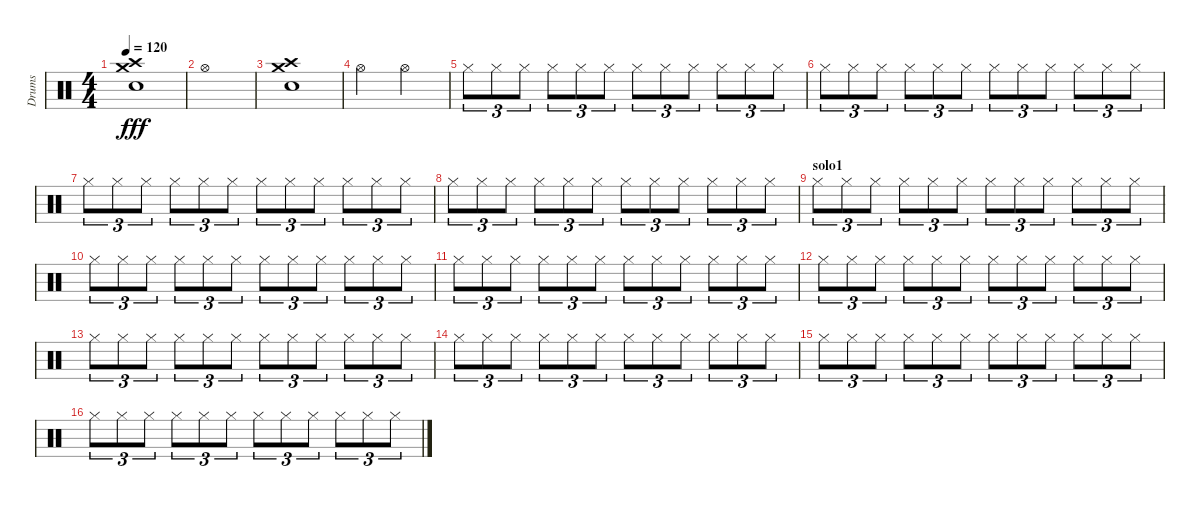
\track ("Drums" "Drums") {instrument percussion}
\staff {score}
\articulation defaults
\ts (4 4)
\tempo 120
\clef neutral
\ks c
("Crash high (hit)" "Crash medium (hit)" "Electric Snare (hit)").1{dy fff} |
"Hi-Hat (open)".1 |
("Crash high (hit)" "Crash medium (hit)" "Electric Snare (hit)").1 |
"Hi-Hat (open)".2 "Hi-Hat (open)".2 |
"Hi-Hat (closed)".8{tu (3 2)} "Hi-Hat (closed)".8{tu (3 2)} "Hi-Hat (closed)".8{tu (3 2)} "Hi-Hat (closed)".8{tu (3 2)} "Hi-Hat (closed)".8{tu (3 2)} "Hi-Hat (closed)".8{tu (3 2)} "Hi-Hat (closed)".8{tu (3 2)} "Hi-Hat (closed)".8{tu (3 2)} "Hi-Hat (closed)".8{tu (3 2)} "Hi-Hat (closed)".8{tu (3 2)} "Hi-Hat (closed)".8{tu (3 2)} "Hi-Hat (closed)".8{tu (3 2)} |
"Hi-Hat (closed)".8{tu (3 2)} "Hi-Hat (closed)".8{tu (3 2)} "Hi-Hat (closed)".8{tu (3 2)} "Hi-Hat (closed)".8{tu (3 2)} "Hi-Hat (closed)".8{tu (3 2)} "Hi-Hat (closed)".8{tu (3 2)} "Hi-Hat (closed)".8{tu (3 2)} "Hi-Hat (closed)".8{tu (3 2)} "Hi-Hat (closed)".8{tu (3 2)} "Hi-Hat (closed)".8{tu (3 2)} "Hi-Hat (closed)".8{tu (3 2)} "Hi-Hat (closed)".8{tu (3 2)} |
"Hi-Hat (closed)".8{tu (3 2)} "Hi-Hat (closed)".8{tu (3 2)} "Hi-Hat (closed)".8{tu (3 2)} "Hi-Hat (closed)".8{tu (3 2)} "Hi-Hat (closed)".8{tu (3 2)} "Hi-Hat (closed)".8{tu (3 2)} "Hi-Hat (closed)".8{tu (3 2)} "Hi-Hat (closed)".8{tu (3 2)} "Hi-Hat (closed)".8{tu (3 2)} "Hi-Hat (closed)".8{tu (3 2)} "Hi-Hat (closed)".8{tu (3 2)} "Hi-Hat (closed)".8{tu (3 2)} |
"Hi-Hat (closed)".8{tu (3 2)} "Hi-Hat (closed)".8{tu (3 2)} "Hi-Hat (closed)".8{tu (3 2)} "Hi-Hat (closed)".8{tu (3 2)} "Hi-Hat (closed)".8{tu (3 2)} "Hi-Hat (closed)".8{tu (3 2)} "Hi-Hat (closed)".8{tu (3 2)} "Hi-Hat (closed)".8{tu (3 2)} "Hi-Hat (closed)".8{tu (3 2)} "Hi-Hat (closed)".8{tu (3 2)} "Hi-Hat (closed)".8{tu (3 2)} "Hi-Hat (closed)".8{tu (3 2)} |
\section ("" "solo1")
"Hi-Hat (closed)".8{tu (3 2)} "Hi-Hat (closed)".8{tu (3 2)} "Hi-Hat (closed)".8{tu (3 2)} "Hi-Hat (closed)".8{tu (3 2)} "Hi-Hat (closed)".8{tu (3 2)} "Hi-Hat (closed)".8{tu (3 2)} "Hi-Hat (closed)".8{tu (3 2)} "Hi-Hat (closed)".8{tu (3 2)} "Hi-Hat (closed)".8{tu (3 2)} "Hi-Hat (closed)".8{tu (3 2)} "Hi-Hat (closed)".8{tu (3 2)} "Hi-Hat (closed)".8{tu (3 2)} |
"Hi-Hat (closed)".8{tu (3 2)} "Hi-Hat (closed)".8{tu (3 2)} "Hi-Hat (closed)".8{tu (3 2)} "Hi-Hat (closed)".8{tu (3 2)} "Hi-Hat (closed)".8{tu (3 2)} "Hi-Hat (closed)".8{tu (3 2)} "Hi-Hat (closed)".8{tu (3 2)} "Hi-Hat (closed)".8{tu (3 2)} "Hi-Hat (closed)".8{tu (3 2)} "Hi-Hat (closed)".8{tu (3 2)} "Hi-Hat (closed)".8{tu (3 2)} "Hi-Hat (closed)".8{tu (3 2)} |
"Hi-Hat (closed)".8{tu (3 2)} "Hi-Hat (closed)".8{tu (3 2)} "Hi-Hat (closed)".8{tu (3 2)} "Hi-Hat (closed)".8{tu (3 2)} "Hi-Hat (closed)".8{tu (3 2)} "Hi-Hat (closed)".8{tu (3 2)} "Hi-Hat (closed)".8{tu (3 2)} "Hi-Hat (closed)".8{tu (3 2)} "Hi-Hat (closed)".8{tu (3 2)} "Hi-Hat (closed)".8{tu (3 2)} "Hi-Hat (closed)".8{tu (3 2)} "Hi-Hat (closed)".8{tu (3 2)} |
"Hi-Hat (closed)".8{tu (3 2)} "Hi-Hat (closed)".8{tu (3 2)} "Hi-Hat (closed)".8{tu (3 2)} "Hi-Hat (closed)".8{tu (3 2)} "Hi-Hat (closed)".8{tu (3 2)} "Hi-Hat (closed)".8{tu (3 2)} "Hi-Hat (closed)".8{tu (3 2)} "Hi-Hat (closed)".8{tu (3 2)} "Hi-Hat (closed)".8{tu (3 2)} "Hi-Hat (closed)".8{tu (3 2)} "Hi-Hat (closed)".8{tu (3 2)} "Hi-Hat (closed)".8{tu (3 2)} |
"Hi-Hat (closed)".8{tu (3 2)} "Hi-Hat (closed)".8{tu (3 2)} "Hi-Hat (closed)".8{tu (3 2)} "Hi-Hat (closed)".8{tu (3 2)} "Hi-Hat (closed)".8{tu (3 2)} "Hi-Hat (closed)".8{tu (3 2)} "Hi-Hat (closed)".8{tu (3 2)} "Hi-Hat (closed)".8{tu (3 2)} "Hi-Hat (closed)".8{tu (3 2)} "Hi-Hat (closed)".8{tu (3 2)} "Hi-Hat (closed)".8{tu (3 2)} "Hi-Hat (closed)".8{tu (3 2)} |
"Hi-Hat (closed)".8{tu (3 2)} "Hi-Hat (closed)".8{tu (3 2)} "Hi-Hat (closed)".8{tu (3 2)} "Hi-Hat (closed)".8{tu (3 2)} "Hi-Hat (closed)".8{tu (3 2)} "Hi-Hat (closed)".8{tu (3 2)} "Hi-Hat (closed)".8{tu (3 2)} "Hi-Hat (closed)".8{tu (3 2)} "Hi-Hat (closed)".8{tu (3 2)} "Hi-Hat (closed)".8{tu (3 2)} "Hi-Hat (closed)".8{tu (3 2)} "Hi-Hat (closed)".8{tu (3 2)} |
"Hi-Hat (closed)".8{tu (3 2)} "Hi-Hat (closed)".8{tu (3 2)} "Hi-Hat (closed)".8{tu (3 2)} "Hi-Hat (closed)".8{tu (3 2)} "Hi-Hat (closed)".8{tu (3 2)} "Hi-Hat (closed)".8{tu (3 2)} "Hi-Hat (closed)".8{tu (3 2)} "Hi-Hat (closed)".8{tu (3 2)} "Hi-Hat (closed)".8{tu (3 2)} "Hi-Hat (closed)".8{tu (3 2)} "Hi-Hat (closed)".8{tu (3 2)} "Hi-Hat (closed)".8{tu (3 2)} |
"Hi-Hat (closed)".8{tu (3 2)} "Hi-Hat (closed)".8{tu (3 2)} "Hi-Hat (closed)".8{tu (3 2)} "Hi-Hat (closed)".8{tu (3 2)} "Hi-Hat (closed)".8{tu (3 2)} "Hi-Hat (closed)".8{tu (3 2)} "Hi-Hat (closed)".8{tu (3 2)} "Hi-Hat (closed)".8{tu (3 2)} "Hi-Hat (closed)".8{tu (3 2)} "Hi-Hat (closed)".8{tu (3 2)} "Hi-Hat (closed)".8{tu (3 2)} "Hi-Hat (closed)".8{tu (3 2)}
